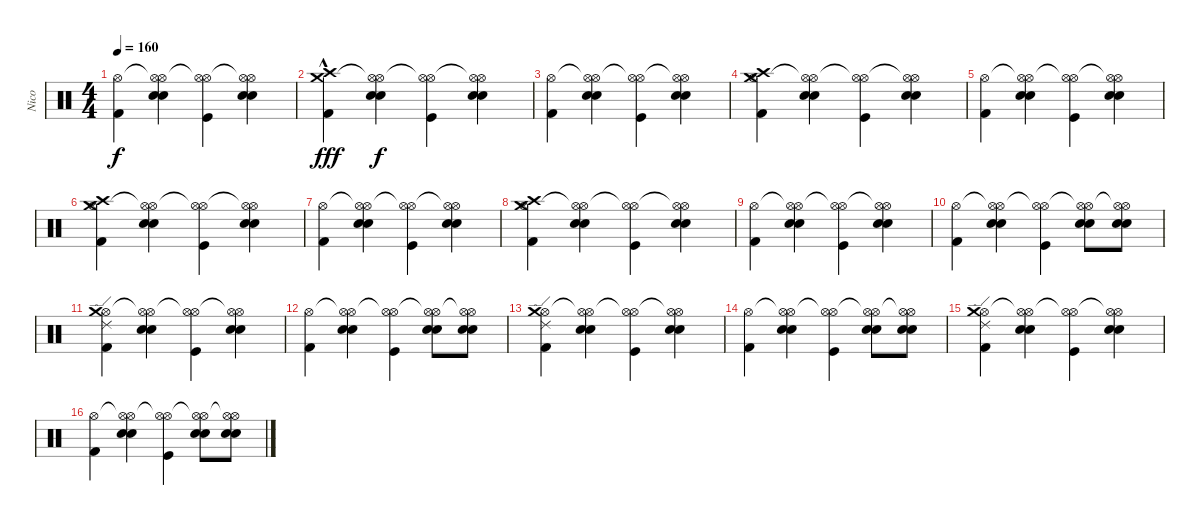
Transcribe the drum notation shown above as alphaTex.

\track ("Nico" "Nico") {instrument percussion}
\staff {score}
\articulation defaults
\ts (4 4)
\tempo 160
\clef neutral
\ks c
("Hi-Hat (open)" "Kick (hit) 2").4{dy f} ("Hi-Hat (open)"{t} "Hi-Hat (open)" "Electric Snare (hit)" "Snare (hit) 2").4 ("Hi-Hat (open)" "Hi-Hat (open)"{t} "Kick (hit)").4 ("Hi-Hat (open)"{t} "Hi-Hat (open)" "Electric Snare (hit)" "Snare (hit) 2").4 |
("Crash medium (hit)"{hac} "Crash high (hit)"{hac} "Kick (hit) 2").4{dy fff} ("Hi-Hat (open)"{t} "Hi-Hat (open)" "Electric Snare (hit)" "Snare (hit) 2").4{dy f} ("Hi-Hat (open)" "Hi-Hat (open)"{t} "Kick (hit)").4 ("Hi-Hat (open)"{t} "Hi-Hat (open)" "Electric Snare (hit)" "Snare (hit) 2").4 |
("Hi-Hat (open)" "Kick (hit) 2").4 ("Hi-Hat (open)"{t} "Hi-Hat (open)" "Electric Snare (hit)" "Snare (hit) 2").4 ("Hi-Hat (open)" "Hi-Hat (open)"{t} "Kick (hit)").4 ("Hi-Hat (open)"{t} "Hi-Hat (open)" "Electric Snare (hit)" "Snare (hit) 2").4 |
("Hi-Hat (open)" "Crash high (hit)" "Crash medium (hit)" "Kick (hit) 2").4 ("Hi-Hat (open)"{t} "Hi-Hat (open)" "Electric Snare (hit)" "Snare (hit) 2").4 ("Hi-Hat (open)" "Hi-Hat (open)"{t} "Kick (hit)").4 ("Hi-Hat (open)"{t} "Hi-Hat (open)" "Electric Snare (hit)" "Snare (hit) 2").4 |
("Hi-Hat (open)" "Kick (hit) 2").4 ("Hi-Hat (open)"{t} "Hi-Hat (open)" "Electric Snare (hit)" "Snare (hit) 2").4 ("Hi-Hat (open)" "Hi-Hat (open)"{t} "Kick (hit)").4 ("Hi-Hat (open)"{t} "Hi-Hat (open)" "Electric Snare (hit)" "Snare (hit) 2").4 |
("Hi-Hat (open)" "Crash medium (hit)" "Crash high (hit)" "Kick (hit) 2").4 ("Hi-Hat (open)"{t} "Hi-Hat (open)" "Electric Snare (hit)" "Snare (hit) 2").4 ("Hi-Hat (open)" "Hi-Hat (open)"{t} "Kick (hit)").4 ("Hi-Hat (open)"{t} "Hi-Hat (open)" "Electric Snare (hit)" "Snare (hit) 2").4 |
("Hi-Hat (open)" "Kick (hit) 2").4 ("Hi-Hat (open)"{t} "Hi-Hat (open)" "Electric Snare (hit)" "Snare (hit) 2").4 ("Hi-Hat (open)" "Hi-Hat (open)"{t} "Kick (hit)").4 ("Hi-Hat (open)"{t} "Hi-Hat (open)" "Electric Snare (hit)" "Snare (hit) 2").4 |
("Hi-Hat (open)" "Crash high (hit)" "Crash medium (hit)" "Kick (hit) 2").4 ("Hi-Hat (open)"{t} "Hi-Hat (open)" "Electric Snare (hit)" "Snare (hit) 2").4 ("Hi-Hat (open)" "Hi-Hat (open)"{t} "Kick (hit)").4 ("Hi-Hat (open)"{t} "Hi-Hat (open)" "Electric Snare (hit)" "Snare (hit) 2").4 |
("Hi-Hat (open)" "Kick (hit) 2").4 ("Hi-Hat (open)"{t} "Hi-Hat (open)" "Electric Snare (hit)" "Snare (hit) 2").4 ("Hi-Hat (open)" "Hi-Hat (open)"{t} "Kick (hit)").4 ("Hi-Hat (open)"{t} "Hi-Hat (open)" "Electric Snare (hit)" "Snare (hit) 2").4 |
("Hi-Hat (open)" "Kick (hit) 2").4 ("Hi-Hat (open)"{t} "Hi-Hat (open)" "Electric Snare (hit)" "Snare (hit) 2").4 ("Hi-Hat (open)" "Hi-Hat (open)"{t} "Kick (hit)").4 ("Hi-Hat (open)"{t} "Hi-Hat (open)" "Electric Snare (hit)" "Snare (hit) 2").8 ("Hi-Hat (open)"{t} "Hi-Hat (open)" "Electric Snare (hit)" "Snare (hit) 2").8 |
("Hi-Hat (open)" "Crash medium (hit)" "Ride (edge) 2" "Kick (hit) 2").4 ("Hi-Hat (open)"{t} "Hi-Hat (open)" "Electric Snare (hit)" "Snare (hit) 2").4 ("Hi-Hat (open)" "Hi-Hat (open)"{t} "Kick (hit)").4 ("Hi-Hat (open)"{t} "Hi-Hat (open)" "Electric Snare (hit)" "Snare (hit) 2").4 |
("Hi-Hat (open)" "Kick (hit) 2").4 ("Hi-Hat (open)"{t} "Hi-Hat (open)" "Electric Snare (hit)" "Snare (hit) 2").4 ("Hi-Hat (open)" "Hi-Hat (open)"{t} "Kick (hit)").4 ("Hi-Hat (open)"{t} "Hi-Hat (open)" "Electric Snare (hit)" "Snare (hit) 2").8 ("Hi-Hat (open)"{t} "Hi-Hat (open)" "Electric Snare (hit)" "Snare (hit) 2").8 |
("Hi-Hat (open)" "Crash medium (hit)" "Ride (edge) 2" "Kick (hit) 2").4 ("Hi-Hat (open)"{t} "Hi-Hat (open)" "Electric Snare (hit)" "Snare (hit) 2").4 ("Hi-Hat (open)" "Hi-Hat (open)"{t} "Kick (hit)").4 ("Hi-Hat (open)"{t} "Hi-Hat (open)" "Electric Snare (hit)" "Snare (hit) 2").4 |
("Hi-Hat (open)" "Kick (hit) 2").4 ("Hi-Hat (open)"{t} "Hi-Hat (open)" "Electric Snare (hit)" "Snare (hit) 2").4 ("Hi-Hat (open)" "Hi-Hat (open)"{t} "Kick (hit)").4 ("Hi-Hat (open)"{t} "Hi-Hat (open)" "Electric Snare (hit)" "Snare (hit) 2").8 ("Hi-Hat (open)"{t} "Hi-Hat (open)" "Electric Snare (hit)" "Snare (hit) 2").8 |
("Hi-Hat (open)" "Crash medium (hit)" "Ride (edge) 2" "Kick (hit) 2").4 ("Hi-Hat (open)"{t} "Hi-Hat (open)" "Electric Snare (hit)" "Snare (hit) 2").4 ("Hi-Hat (open)" "Hi-Hat (open)"{t} "Kick (hit)").4 ("Hi-Hat (open)"{t} "Hi-Hat (open)" "Electric Snare (hit)" "Snare (hit) 2").4 |
("Hi-Hat (open)" "Kick (hit) 2").4 ("Hi-Hat (open)"{t} "Hi-Hat (open)" "Electric Snare (hit)" "Snare (hit) 2").4 ("Hi-Hat (open)" "Hi-Hat (open)"{t} "Kick (hit)").4 ("Hi-Hat (open)"{t} "Hi-Hat (open)" "Electric Snare (hit)" "Snare (hit) 2").8 ("Hi-Hat (open)"{t} "Hi-Hat (open)" "Electric Snare (hit)" "Snare (hit) 2").8
